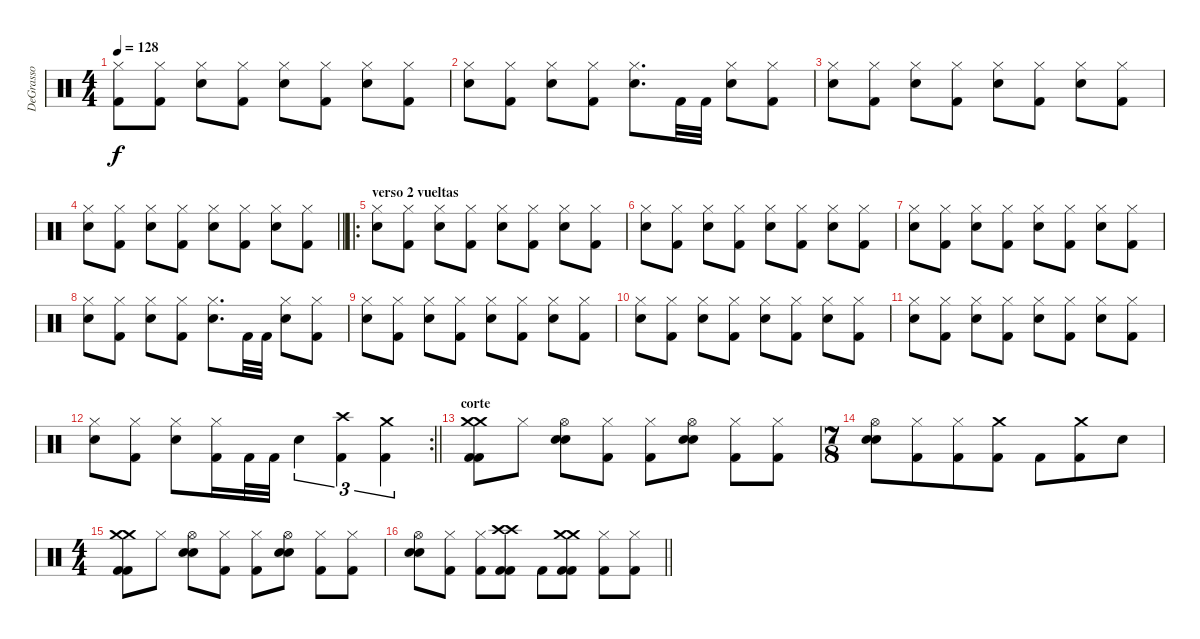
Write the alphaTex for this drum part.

\track ("DeGrasso" "DeGrasso") {instrument percussion}
\staff {score}
\articulation defaults
\ts (4 4)
\tempo 128
\clef neutral
\ks c
("Hi-Hat (closed)" "Kick (hit) 2").8{dy f} ("Hi-Hat (closed)" "Kick (hit) 2").8 ("Hi-Hat (closed)" "Electric Snare (hit)").8 ("Hi-Hat (closed)" "Kick (hit) 2").8 ("Hi-Hat (closed)" "Electric Snare (hit)").8 ("Hi-Hat (closed)" "Kick (hit) 2").8 ("Hi-Hat (closed)" "Electric Snare (hit)").8 ("Hi-Hat (closed)" "Kick (hit) 2").8 |
("Hi-Hat (closed)" "Electric Snare (hit)").8 ("Hi-Hat (closed)" "Kick (hit) 2").8 ("Hi-Hat (closed)" "Electric Snare (hit)").8 ("Hi-Hat (closed)" "Kick (hit) 2").8 ("Hi-Hat (closed)" "Electric Snare (hit)").8{d} "Kick (hit) 2".32 "Kick (hit) 2".32 ("Hi-Hat (closed)" "Electric Snare (hit)").8 ("Hi-Hat (closed)" "Kick (hit) 2").8 |
("Hi-Hat (closed)" "Electric Snare (hit)").8 ("Hi-Hat (closed)" "Kick (hit) 2").8 ("Hi-Hat (closed)" "Electric Snare (hit)").8 ("Hi-Hat (closed)" "Kick (hit) 2").8 ("Hi-Hat (closed)" "Electric Snare (hit)").8 ("Hi-Hat (closed)" "Kick (hit) 2").8 ("Hi-Hat (closed)" "Electric Snare (hit)").8 ("Hi-Hat (closed)" "Kick (hit) 2").8 |
\barLineRight lightlight
("Hi-Hat (closed)" "Electric Snare (hit)").8 ("Hi-Hat (closed)" "Kick (hit) 2").8 ("Hi-Hat (closed)" "Electric Snare (hit)").8 ("Hi-Hat (closed)" "Kick (hit) 2").8 ("Hi-Hat (closed)" "Electric Snare (hit)").8 ("Hi-Hat (closed)" "Kick (hit) 2").8 ("Hi-Hat (closed)" "Electric Snare (hit)").8 ("Hi-Hat (closed)" "Kick (hit) 2").8 |
\ro
\section ("" "verso 2 vueltas")
("Hi-Hat (closed)" "Electric Snare (hit)").8 ("Hi-Hat (closed)" "Kick (hit) 2").8 ("Hi-Hat (closed)" "Electric Snare (hit)").8 ("Hi-Hat (closed)" "Kick (hit) 2").8 ("Hi-Hat (closed)" "Electric Snare (hit)").8 ("Hi-Hat (closed)" "Kick (hit) 2").8 ("Hi-Hat (closed)" "Electric Snare (hit)").8 ("Hi-Hat (closed)" "Kick (hit) 2").8 |
("Hi-Hat (closed)" "Electric Snare (hit)").8 ("Hi-Hat (closed)" "Kick (hit) 2").8 ("Hi-Hat (closed)" "Electric Snare (hit)").8 ("Hi-Hat (closed)" "Kick (hit) 2").8 ("Hi-Hat (closed)" "Electric Snare (hit)").8 ("Hi-Hat (closed)" "Kick (hit) 2").8 ("Hi-Hat (closed)" "Electric Snare (hit)").8 ("Hi-Hat (closed)" "Kick (hit) 2").8 |
("Hi-Hat (closed)" "Electric Snare (hit)").8 ("Hi-Hat (closed)" "Kick (hit) 2").8 ("Hi-Hat (closed)" "Electric Snare (hit)").8 ("Hi-Hat (closed)" "Kick (hit) 2").8 ("Hi-Hat (closed)" "Electric Snare (hit)").8 ("Hi-Hat (closed)" "Kick (hit) 2").8 ("Hi-Hat (closed)" "Electric Snare (hit)").8 ("Hi-Hat (closed)" "Kick (hit) 2").8 |
("Hi-Hat (closed)" "Electric Snare (hit)").8 ("Hi-Hat (closed)" "Kick (hit) 2").8 ("Hi-Hat (closed)" "Electric Snare (hit)").8 ("Hi-Hat (closed)" "Kick (hit) 2").8 ("Hi-Hat (closed)" "Electric Snare (hit)").8{d} "Kick (hit) 2".32 "Kick (hit) 2".32 ("Hi-Hat (closed)" "Electric Snare (hit)").8 ("Hi-Hat (closed)" "Kick (hit) 2").8 |
("Hi-Hat (closed)" "Electric Snare (hit)").8 ("Hi-Hat (closed)" "Kick (hit) 2").8 ("Hi-Hat (closed)" "Electric Snare (hit)").8 ("Hi-Hat (closed)" "Kick (hit) 2").8 ("Hi-Hat (closed)" "Electric Snare (hit)").8 ("Hi-Hat (closed)" "Kick (hit) 2").8 ("Hi-Hat (closed)" "Electric Snare (hit)").8 ("Hi-Hat (closed)" "Kick (hit) 2").8 |
("Hi-Hat (closed)" "Electric Snare (hit)").8 ("Hi-Hat (closed)" "Kick (hit) 2").8 ("Hi-Hat (closed)" "Electric Snare (hit)").8 ("Hi-Hat (closed)" "Kick (hit) 2").8 ("Hi-Hat (closed)" "Electric Snare (hit)").8 ("Hi-Hat (closed)" "Kick (hit) 2").8 ("Hi-Hat (closed)" "Electric Snare (hit)").8 ("Hi-Hat (closed)" "Kick (hit) 2").8 |
("Hi-Hat (closed)" "Electric Snare (hit)").8 ("Hi-Hat (closed)" "Kick (hit) 2").8 ("Hi-Hat (closed)" "Electric Snare (hit)").8 ("Hi-Hat (closed)" "Kick (hit) 2").8 ("Hi-Hat (closed)" "Electric Snare (hit)").8 ("Hi-Hat (closed)" "Kick (hit) 2").8 ("Hi-Hat (closed)" "Electric Snare (hit)").8 ("Hi-Hat (closed)" "Kick (hit) 2").8 |
\rc 2
\barLineRight lightlight
("Hi-Hat (closed)" "Electric Snare (hit)").8 ("Hi-Hat (closed)" "Kick (hit) 2").8 ("Hi-Hat (closed)" "Electric Snare (hit)").8 ("Hi-Hat (closed)" "Kick (hit) 2").16 "Kick (hit) 2".32 "Kick (hit) 2".32 "Electric Snare (hit)".4{tu (3 2)} ("Crash high (hit)" "Kick (hit) 2").4{tu (3 2)} ("Crash medium (hit)" "Kick (hit) 2").4{tu (3 2)} |
\section ("" "corte")
("Crash medium (hit)" "Crash medium (hit)" "Kick (hit) 2" "Kick (hit) 2").8 "Hi-Hat (closed)".8 ("Hi-Hat (open)" "Snare (hit) 2" "Electric Snare (hit)").8 ("Hi-Hat (closed)" "Kick (hit) 2").8 ("Hi-Hat (closed)" "Kick (hit) 2").8 ("Hi-Hat (open)" "Snare (hit) 2" "Electric Snare (hit)").8 ("Hi-Hat (closed)" "Kick (hit) 2").8 ("Hi-Hat (closed)" "Kick (hit) 2").8 |
\ts (7 8)
("Hi-Hat (open)" "Snare (hit) 2" "Electric Snare (hit)").8 ("Hi-Hat (closed)" "Kick (hit) 2").8 ("Hi-Hat (closed)" "Kick (hit) 2").8 ("Crash medium (hit)" "Kick (hit) 2").8 "Kick (hit) 2".8 ("Crash medium (hit)" "Kick (hit) 2").8 "Electric Snare (hit)".8 |
\ts (4 4)
("Crash medium (hit)" "Crash medium (hit)" "Kick (hit) 2" "Kick (hit) 2").8 "Hi-Hat (closed)".8 ("Hi-Hat (open)" "Snare (hit) 2" "Electric Snare (hit)").8 ("Hi-Hat (closed)" "Kick (hit) 2").8 ("Hi-Hat (closed)" "Kick (hit) 2").8 ("Hi-Hat (open)" "Snare (hit) 2" "Electric Snare (hit)").8 ("Hi-Hat (closed)" "Kick (hit) 2").8 ("Hi-Hat (closed)" "Kick (hit) 2").8 |
\barLineRight lightlight
("Hi-Hat (open)" "Snare (hit) 2" "Electric Snare (hit)").8 ("Hi-Hat (closed)" "Kick (hit) 2").8 ("Hi-Hat (closed)" "Kick (hit) 2").8 ("Crash high (hit)" "Crash high (hit)" "Kick (hit) 2" "Kick (hit) 2").8 "Kick (hit) 2".8 ("Crash medium (hit)" "Crash medium (hit)" "Kick (hit) 2" "Kick (hit) 2").8 ("Hi-Hat (closed)" "Kick (hit) 2").8 ("Hi-Hat (closed)" "Kick (hit) 2").8
